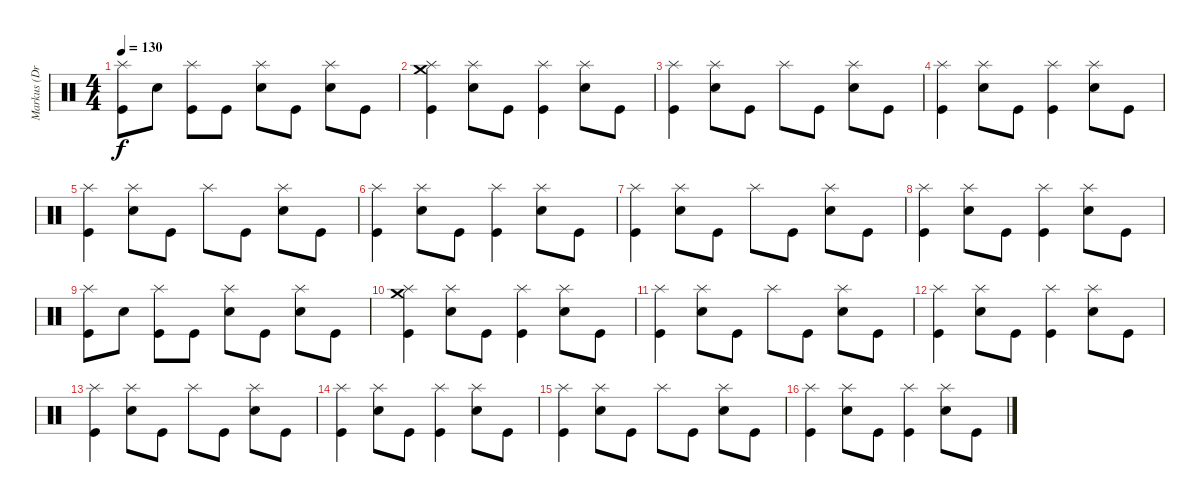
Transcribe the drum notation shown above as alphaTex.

\track ("Markus (Drums)" "Markus (Dr") {instrument percussion}
\staff {score}
\articulation defaults
\ts (4 4)
\tempo 130
\clef neutral
\ks c
("Splash (hit)" "Kick (hit)").8{dy f} "Electric Snare (hit)".8 ("Splash (hit)" "Kick (hit)").8 "Kick (hit)".8 ("Splash (hit)" "Electric Snare (hit)").8 "Kick (hit)".8 ("Splash (hit)" "Electric Snare (hit)").8 "Kick (hit)".8 |
\section ("" "")
("Crash medium (hit)" "Splash (hit)" "Kick (hit)").4 ("Splash (hit)" "Electric Snare (hit)").8 "Kick (hit)".8 ("Splash (hit)" "Kick (hit)").4 ("Splash (hit)" "Electric Snare (hit)").8 "Kick (hit)".8 |
("Splash (hit)" "Kick (hit)").4 ("Splash (hit)" "Electric Snare (hit)").8 "Kick (hit)".8 "Splash (hit)".8 "Kick (hit)".8 ("Splash (hit)" "Electric Snare (hit)").8 "Kick (hit)".8 |
("Splash (hit)" "Kick (hit)").4 ("Splash (hit)" "Electric Snare (hit)").8 "Kick (hit)".8 ("Splash (hit)" "Kick (hit)").4 ("Splash (hit)" "Electric Snare (hit)").8 "Kick (hit)".8 |
("Splash (hit)" "Kick (hit)").4 ("Splash (hit)" "Electric Snare (hit)").8 "Kick (hit)".8 "Splash (hit)".8 "Kick (hit)".8 ("Splash (hit)" "Electric Snare (hit)").8 "Kick (hit)".8 |
("Splash (hit)" "Kick (hit)").4 ("Splash (hit)" "Electric Snare (hit)").8 "Kick (hit)".8 ("Splash (hit)" "Kick (hit)").4 ("Splash (hit)" "Electric Snare (hit)").8 "Kick (hit)".8 |
("Splash (hit)" "Kick (hit)").4 ("Splash (hit)" "Electric Snare (hit)").8 "Kick (hit)".8 "Splash (hit)".8 "Kick (hit)".8 ("Splash (hit)" "Electric Snare (hit)").8 "Kick (hit)".8 |
("Splash (hit)" "Kick (hit)").4 ("Splash (hit)" "Electric Snare (hit)").8 "Kick (hit)".8 ("Splash (hit)" "Kick (hit)").4 ("Splash (hit)" "Electric Snare (hit)").8 "Kick (hit)".8 |
("Splash (hit)" "Kick (hit)").8 "Electric Snare (hit)".8 ("Splash (hit)" "Kick (hit)").8 "Kick (hit)".8 ("Splash (hit)" "Electric Snare (hit)").8 "Kick (hit)".8 ("Splash (hit)" "Electric Snare (hit)").8 "Kick (hit)".8 |
\section ("" "")
("Crash medium (hit)" "Splash (hit)" "Kick (hit)").4 ("Splash (hit)" "Electric Snare (hit)").8 "Kick (hit)".8 ("Splash (hit)" "Kick (hit)").4 ("Splash (hit)" "Electric Snare (hit)").8 "Kick (hit)".8 |
("Splash (hit)" "Kick (hit)").4 ("Splash (hit)" "Electric Snare (hit)").8 "Kick (hit)".8 "Splash (hit)".8 "Kick (hit)".8 ("Splash (hit)" "Electric Snare (hit)").8 "Kick (hit)".8 |
("Splash (hit)" "Kick (hit)").4 ("Splash (hit)" "Electric Snare (hit)").8 "Kick (hit)".8 ("Splash (hit)" "Kick (hit)").4 ("Splash (hit)" "Electric Snare (hit)").8 "Kick (hit)".8 |
("Splash (hit)" "Kick (hit)").4 ("Splash (hit)" "Electric Snare (hit)").8 "Kick (hit)".8 "Splash (hit)".8 "Kick (hit)".8 ("Splash (hit)" "Electric Snare (hit)").8 "Kick (hit)".8 |
("Splash (hit)" "Kick (hit)").4 ("Splash (hit)" "Electric Snare (hit)").8 "Kick (hit)".8 ("Splash (hit)" "Kick (hit)").4 ("Splash (hit)" "Electric Snare (hit)").8 "Kick (hit)".8 |
("Splash (hit)" "Kick (hit)").4 ("Splash (hit)" "Electric Snare (hit)").8 "Kick (hit)".8 "Splash (hit)".8 "Kick (hit)".8 ("Splash (hit)" "Electric Snare (hit)").8 "Kick (hit)".8 |
("Splash (hit)" "Kick (hit)").4 ("Splash (hit)" "Electric Snare (hit)").8 "Kick (hit)".8 ("Splash (hit)" "Kick (hit)").4 ("Splash (hit)" "Electric Snare (hit)").8 "Kick (hit)".8
